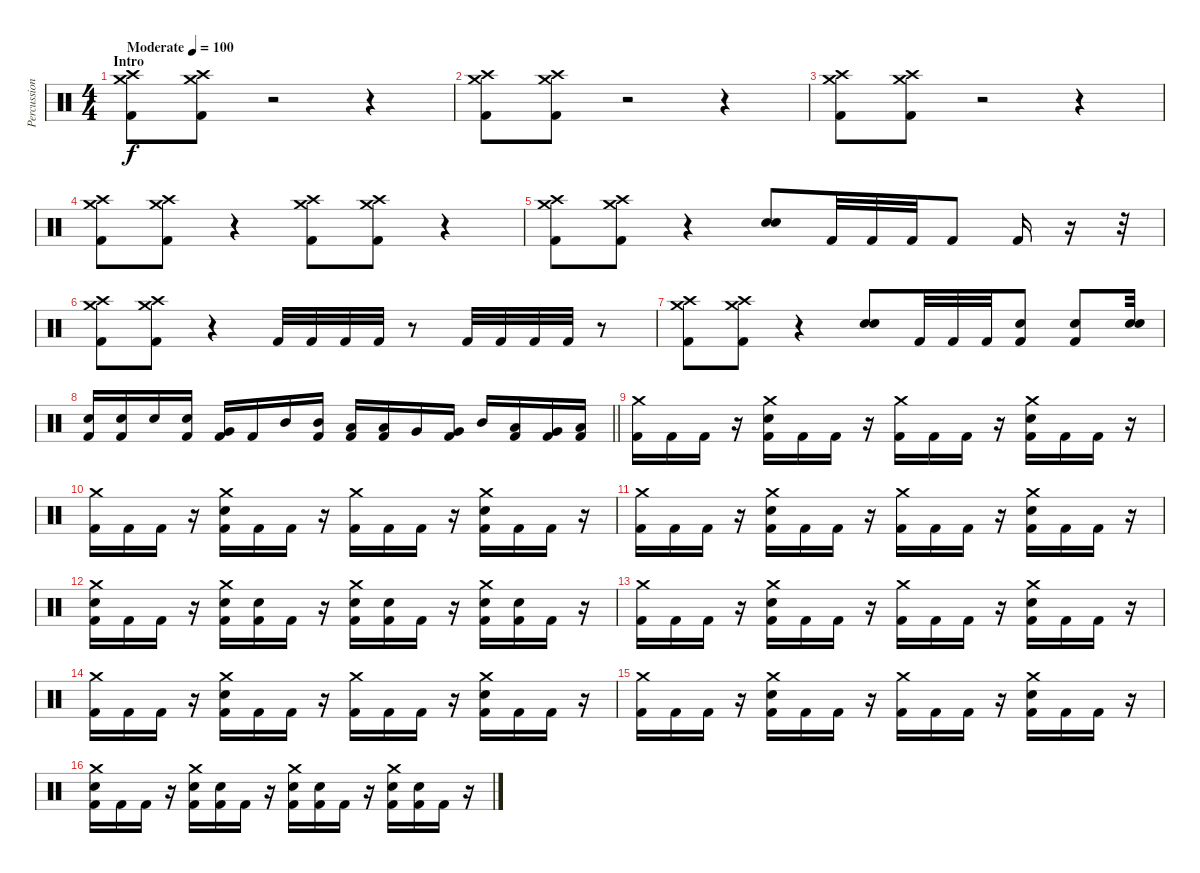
\track ("Percussion" "Percussion") {instrument percussion}
\staff {score}
\articulation defaults
\ts (4 4)
\section ("" "Intro")
\tempo (100 "Moderate")
\clef neutral
\ks c
("Crash medium (hit)" "Crash high (hit)" "Kick (hit) 2").8{dy f} ("Crash medium (hit)" "Crash high (hit)" "Kick (hit) 2").8 r.2 r.4 |
("Crash medium (hit)" "Crash high (hit)" "Kick (hit) 2").8 ("Crash medium (hit)" "Crash high (hit)" "Kick (hit) 2").8 r.2 r.4 |
("Crash medium (hit)" "Crash high (hit)" "Kick (hit) 2").8 ("Crash medium (hit)" "Crash high (hit)" "Kick (hit) 2").8 r.2 r.4 |
("Crash medium (hit)" "Crash high (hit)" "Kick (hit) 2").8 ("Crash medium (hit)" "Crash high (hit)" "Kick (hit) 2").8 r.4 ("Crash medium (hit)" "Crash high (hit)" "Kick (hit) 2").8 ("Crash medium (hit)" "Crash high (hit)" "Kick (hit) 2").8 r.4 |
("Crash medium (hit)" "Crash high (hit)" "Kick (hit) 2").8 ("Crash medium (hit)" "Crash high (hit)" "Kick (hit) 2").8 r.4 ("Electric Snare (hit)" "Electric Snare (hit)").8{bu 60} "Kick (hit) 2".32 "Kick (hit) 2".32 "Kick (hit) 2".32 "Kick (hit) 2".8 "Kick (hit) 2".16 r.16 r.32 |
("Crash medium (hit)" "Crash high (hit)" "Kick (hit) 2").8 ("Crash medium (hit)" "Crash high (hit)" "Kick (hit) 2").8 r.4 "Kick (hit) 2".32 "Kick (hit) 2".32 "Kick (hit) 2".32 "Kick (hit) 2".32 r.8 "Kick (hit) 2".32 "Kick (hit) 2".32 "Kick (hit) 2".32 "Kick (hit) 2".32 r.8 |
("Crash medium (hit)" "Crash high (hit)" "Kick (hit) 2").8 ("Crash medium (hit)" "Crash high (hit)" "Kick (hit) 2").8 r.4 ("Electric Snare (hit)" "Electric Snare (hit)").8{bu 60} "Kick (hit) 2".32 "Kick (hit) 2".32 "Kick (hit) 2".32 ("Electric Snare (hit)" "Kick (hit) 2").8 ("Electric Snare (hit)" "Kick (hit) 2").8 ("Electric Snare (hit)" "Electric Snare (hit)").32{bu 60} |
\barLineRight lightlight
("Electric Snare (hit)" "Kick (hit) 2").16 ("Electric Snare (hit)" "Kick (hit) 2").16 "Electric Snare (hit)".16 ("Electric Snare (hit)" "Kick (hit) 2").16 ("Very Low Tom (hit)" "Kick (hit) 2").16 "Kick (hit) 2".16 "Mid Tom (hit)".16 ("Mid Tom (hit)" "Kick (hit) 2").16 ("Low Tom (hit)" "Kick (hit) 2").16 ("Low Tom (hit)" "Kick (hit) 2").16 "Very Low Tom (hit)".16 ("Very Low Tom (hit)" "Kick (hit) 2").16 "Mid Tom (hit)".16 ("Low Tom (hit)" "Kick (hit) 2").16 ("Very Low Tom (hit)" "Kick (hit) 2").16 ("Low Floor Tom (hit)" "Kick (hit) 2").16 |
("Crash medium (hit)" "Kick (hit) 2").16 "Kick (hit) 2".16 "Kick (hit) 2".16 r.16 ("Crash medium (hit)" "Electric Snare (hit)" "Kick (hit) 2").16 "Kick (hit) 2".16 "Kick (hit) 2".16 r.16 ("Crash medium (hit)" "Kick (hit) 2").16 "Kick (hit) 2".16 "Kick (hit) 2".16 r.16 ("Crash medium (hit)" "Electric Snare (hit)" "Kick (hit) 2").16 "Kick (hit) 2".16 "Kick (hit) 2".16 r.16 |
("Crash medium (hit)" "Kick (hit) 2").16 "Kick (hit) 2".16 "Kick (hit) 2".16 r.16 ("Crash medium (hit)" "Electric Snare (hit)" "Kick (hit) 2").16 "Kick (hit) 2".16 "Kick (hit) 2".16 r.16 ("Crash medium (hit)" "Kick (hit) 2").16 "Kick (hit) 2".16 "Kick (hit) 2".16 r.16 ("Crash medium (hit)" "Electric Snare (hit)" "Kick (hit) 2").16 "Kick (hit) 2".16 "Kick (hit) 2".16 r.16 |
("Crash medium (hit)" "Kick (hit) 2").16 "Kick (hit) 2".16 "Kick (hit) 2".16 r.16 ("Crash medium (hit)" "Electric Snare (hit)" "Kick (hit) 2").16 "Kick (hit) 2".16 "Kick (hit) 2".16 r.16 ("Crash medium (hit)" "Kick (hit) 2").16 "Kick (hit) 2".16 "Kick (hit) 2".16 r.16 ("Crash medium (hit)" "Electric Snare (hit)" "Kick (hit) 2").16 "Kick (hit) 2".16 "Kick (hit) 2".16 r.16 |
("Crash medium (hit)" "Electric Snare (hit)" "Kick (hit) 2").16 "Kick (hit) 2".16 "Kick (hit) 2".16 r.16 ("Crash medium (hit)" "Electric Snare (hit)" "Kick (hit) 2").16 ("Electric Snare (hit)" "Kick (hit) 2").16 "Kick (hit) 2".16 r.16 ("Crash medium (hit)" "Electric Snare (hit)" "Kick (hit) 2").16 ("Electric Snare (hit)" "Kick (hit) 2").16 "Kick (hit) 2".16 r.16 ("Crash medium (hit)" "Electric Snare (hit)" "Kick (hit) 2").16 ("Electric Snare (hit)" "Kick (hit) 2").16 "Kick (hit) 2".16 r.16 |
("Crash medium (hit)" "Kick (hit) 2").16 "Kick (hit) 2".16 "Kick (hit) 2".16 r.16 ("Crash medium (hit)" "Electric Snare (hit)" "Kick (hit) 2").16 "Kick (hit) 2".16 "Kick (hit) 2".16 r.16 ("Crash medium (hit)" "Kick (hit) 2").16 "Kick (hit) 2".16 "Kick (hit) 2".16 r.16 ("Crash medium (hit)" "Electric Snare (hit)" "Kick (hit) 2").16 "Kick (hit) 2".16 "Kick (hit) 2".16 r.16 |
("Crash medium (hit)" "Kick (hit) 2").16 "Kick (hit) 2".16 "Kick (hit) 2".16 r.16 ("Crash medium (hit)" "Electric Snare (hit)" "Kick (hit) 2").16 "Kick (hit) 2".16 "Kick (hit) 2".16 r.16 ("Crash medium (hit)" "Kick (hit) 2").16 "Kick (hit) 2".16 "Kick (hit) 2".16 r.16 ("Crash medium (hit)" "Electric Snare (hit)" "Kick (hit) 2").16 "Kick (hit) 2".16 "Kick (hit) 2".16 r.16 |
("Crash medium (hit)" "Kick (hit) 2").16 "Kick (hit) 2".16 "Kick (hit) 2".16 r.16 ("Crash medium (hit)" "Electric Snare (hit)" "Kick (hit) 2").16 "Kick (hit) 2".16 "Kick (hit) 2".16 r.16 ("Crash medium (hit)" "Kick (hit) 2").16 "Kick (hit) 2".16 "Kick (hit) 2".16 r.16 ("Crash medium (hit)" "Electric Snare (hit)" "Kick (hit) 2").16 "Kick (hit) 2".16 "Kick (hit) 2".16 r.16 |
("Crash medium (hit)" "Electric Snare (hit)" "Kick (hit) 2").16 "Kick (hit) 2".16 "Kick (hit) 2".16 r.16 ("Crash medium (hit)" "Electric Snare (hit)" "Kick (hit) 2").16 ("Electric Snare (hit)" "Kick (hit) 2").16 "Kick (hit) 2".16 r.16 ("Crash medium (hit)" "Electric Snare (hit)" "Kick (hit) 2").16 ("Electric Snare (hit)" "Kick (hit) 2").16 "Kick (hit) 2".16 r.16 ("Crash medium (hit)" "Electric Snare (hit)" "Kick (hit) 2").16 ("Electric Snare (hit)" "Kick (hit) 2").16 "Kick (hit) 2".16 r.16
